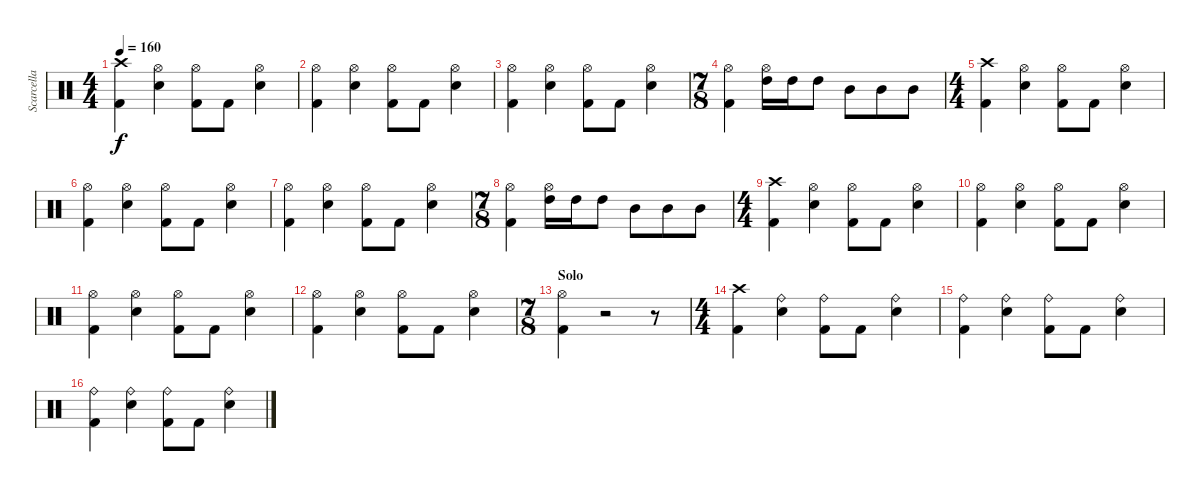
\track ("Scarcella" "Scarcella") {instrument percussion}
\staff {score}
\articulation defaults
\ts (4 4)
\tempo 160
\clef neutral
\ks c
("Crash high (hit)" "Kick (hit) 2").4{dy f} ("Hi-Hat (open)" "Snare (hit) 2").4 ("Hi-Hat (open)" "Kick (hit) 2").8 "Kick (hit) 2".8 ("Hi-Hat (open)" "Snare (hit) 2").4 |
("Hi-Hat (open)" "Kick (hit) 2").4 ("Hi-Hat (open)" "Snare (hit) 2").4 ("Hi-Hat (open)" "Kick (hit) 2").8 "Kick (hit) 2".8 ("Hi-Hat (open)" "Snare (hit) 2").4 |
("Hi-Hat (open)" "Kick (hit) 2").4 ("Hi-Hat (open)" "Snare (hit) 2").4 ("Hi-Hat (open)" "Kick (hit) 2").8 "Kick (hit) 2".8 ("Hi-Hat (open)" "Snare (hit) 2").4 |
\ts (7 8)
("Hi-Hat (open)" "Kick (hit) 2").4 ("Hi-Hat (open)" "High Tom (hit)").16 "High Tom (hit)".16 "High Tom (hit)".8 "Mid Tom (hit)".8 "Mid Tom (hit)".8 "Mid Tom (hit)".8 |
\ts (4 4)
("Crash high (hit)" "Kick (hit) 2").4 ("Hi-Hat (open)" "Snare (hit) 2").4 ("Hi-Hat (open)" "Kick (hit) 2").8 "Kick (hit) 2".8 ("Hi-Hat (open)" "Snare (hit) 2").4 |
("Hi-Hat (open)" "Kick (hit) 2").4 ("Hi-Hat (open)" "Snare (hit) 2").4 ("Hi-Hat (open)" "Kick (hit) 2").8 "Kick (hit) 2".8 ("Hi-Hat (open)" "Snare (hit) 2").4 |
("Hi-Hat (open)" "Kick (hit) 2").4 ("Hi-Hat (open)" "Snare (hit) 2").4 ("Hi-Hat (open)" "Kick (hit) 2").8 "Kick (hit) 2".8 ("Hi-Hat (open)" "Snare (hit) 2").4 |
\ts (7 8)
("Hi-Hat (open)" "Kick (hit) 2").4 ("Hi-Hat (open)" "High Tom (hit)").16 "High Tom (hit)".16 "High Tom (hit)".8 "Mid Tom (hit)".8 "Mid Tom (hit)".8 "Mid Tom (hit)".8 |
\ts (4 4)
("Crash high (hit)" "Kick (hit) 2").4 ("Hi-Hat (open)" "Snare (hit) 2").4 ("Hi-Hat (open)" "Kick (hit) 2").8 "Kick (hit) 2".8 ("Hi-Hat (open)" "Snare (hit) 2").4 |
("Hi-Hat (open)" "Kick (hit) 2").4 ("Hi-Hat (open)" "Snare (hit) 2").4 ("Hi-Hat (open)" "Kick (hit) 2").8 "Kick (hit) 2".8 ("Hi-Hat (open)" "Snare (hit) 2").4 |
("Hi-Hat (open)" "Kick (hit) 2").4 ("Hi-Hat (open)" "Snare (hit) 2").4 ("Hi-Hat (open)" "Kick (hit) 2").8 "Kick (hit) 2".8 ("Hi-Hat (open)" "Snare (hit) 2").4 |
("Hi-Hat (open)" "Kick (hit) 2").4 ("Hi-Hat (open)" "Snare (hit) 2").4 ("Hi-Hat (open)" "Kick (hit) 2").8 "Kick (hit) 2".8 ("Hi-Hat (open)" "Snare (hit) 2").4 |
\ts (7 8)
\section ("" "Solo")
("Hi-Hat (open)" "Kick (hit) 2").4 r.2 r.8 |
\ts (4 4)
("Crash high (hit)" "Kick (hit) 2").4 ("Ride (bell)" "Snare (hit) 2").4 ("Ride (bell)" "Kick (hit) 2").8 "Kick (hit) 2".8 ("Ride (bell)" "Snare (hit) 2").4 |
("Ride (bell)" "Kick (hit) 2").4 ("Ride (bell)" "Snare (hit) 2").4 ("Ride (bell)" "Kick (hit) 2").8 "Kick (hit) 2".8 ("Ride (bell)" "Snare (hit) 2").4 |
("Ride (bell)" "Kick (hit) 2").4 ("Ride (bell)" "Snare (hit) 2").4 ("Ride (bell)" "Kick (hit) 2").8 "Kick (hit) 2".8 ("Ride (bell)" "Snare (hit) 2").4
